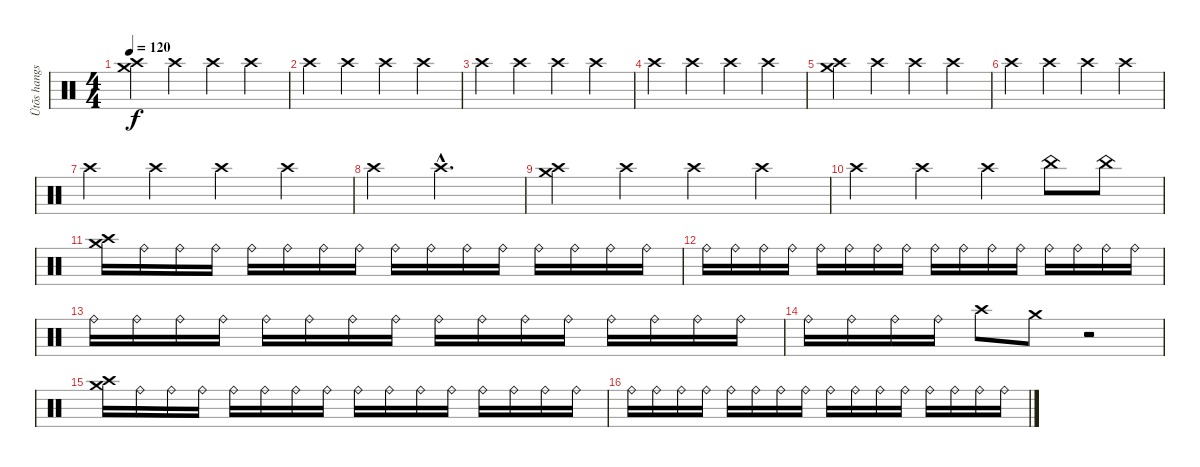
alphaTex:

\track ("Ütõs hangszer" "Ütõs hangs") {instrument percussion}
\staff {score}
\articulation defaults
\ts (4 4)
\tempo 120
\clef neutral
\ks c
("Crash medium (hit)" "Crash high (hit)").4{dy f} "Crash high (hit)".4 "Crash high (hit)".4 "Crash high (hit)".4 |
"Crash high (hit)".4 "Crash high (hit)".4 "Crash high (hit)".4 "Crash high (hit)".4 |
"Crash high (hit)".4 "Crash high (hit)".4 "Crash high (hit)".4 "Crash high (hit)".4 |
"Crash high (hit)".4 "Crash high (hit)".4 "Crash high (hit)".4 "Crash high (hit)".4 |
("Crash medium (hit)" "Crash high (hit)").4 "Crash high (hit)".4 "Crash high (hit)".4 "Crash high (hit)".4 |
"Crash high (hit)".4 "Crash high (hit)".4 "Crash high (hit)".4 "Crash high (hit)".4 |
"Crash high (hit)".4 "Crash high (hit)".4 "Crash high (hit)".4 "Crash high (hit)".4 |
"Crash high (hit)".4 "Crash high (hit)"{hac}.2{d} |
("Crash medium (hit)" "Crash high (hit)").4 "Crash high (hit)".4 "Crash high (hit)".4 "Crash high (hit)".4 |
"Crash high (hit)".4 "Crash high (hit)".4 "Crash high (hit)".4 "China (hit)".8 "China (hit)".8 |
("Crash medium (hit)" "Crash high (hit)").16 "Ride (bell)".16 "Ride (bell)".16 "Ride (bell)".16 "Ride (bell)".16 "Ride (bell)".16 "Ride (bell)".16 "Ride (bell)".16 "Ride (bell)".16 "Ride (bell)".16 "Ride (bell)".16 "Ride (bell)".16 "Ride (bell)".16 "Ride (bell)".16 "Ride (bell)".16 "Ride (bell)".16 |
"Ride (bell)".16 "Ride (bell)".16 "Ride (bell)".16 "Ride (bell)".16 "Ride (bell)".16 "Ride (bell)".16 "Ride (bell)".16 "Ride (bell)".16 "Ride (bell)".16 "Ride (bell)".16 "Ride (bell)".16 "Ride (bell)".16 "Ride (bell)".16 "Ride (bell)".16 "Ride (bell)".16 "Ride (bell)".16 |
"Ride (bell)".16 "Ride (bell)".16 "Ride (bell)".16 "Ride (bell)".16 "Ride (bell)".16 "Ride (bell)".16 "Ride (bell)".16 "Ride (bell)".16 "Ride (bell)".16 "Ride (bell)".16 "Ride (bell)".16 "Ride (bell)".16 "Ride (bell)".16 "Ride (bell)".16 "Ride (bell)".16 "Ride (bell)".16 |
"Ride (bell)".16 "Ride (bell)".16 "Ride (bell)".16 "Ride (bell)".16 "Crash high (hit)".8 "Crash medium (hit)".8 r.2 |
("Crash medium (hit)" "Crash high (hit)").16 "Ride (bell)".16 "Ride (bell)".16 "Ride (bell)".16 "Ride (bell)".16 "Ride (bell)".16 "Ride (bell)".16 "Ride (bell)".16 "Ride (bell)".16 "Ride (bell)".16 "Ride (bell)".16 "Ride (bell)".16 "Ride (bell)".16 "Ride (bell)".16 "Ride (bell)".16 "Ride (bell)".16 |
"Ride (bell)".16 "Ride (bell)".16 "Ride (bell)".16 "Ride (bell)".16 "Ride (bell)".16 "Ride (bell)".16 "Ride (bell)".16 "Ride (bell)".16 "Ride (bell)".16 "Ride (bell)".16 "Ride (bell)".16 "Ride (bell)".16 "Ride (bell)".16 "Ride (bell)".16 "Ride (bell)".16 "Ride (bell)".16
